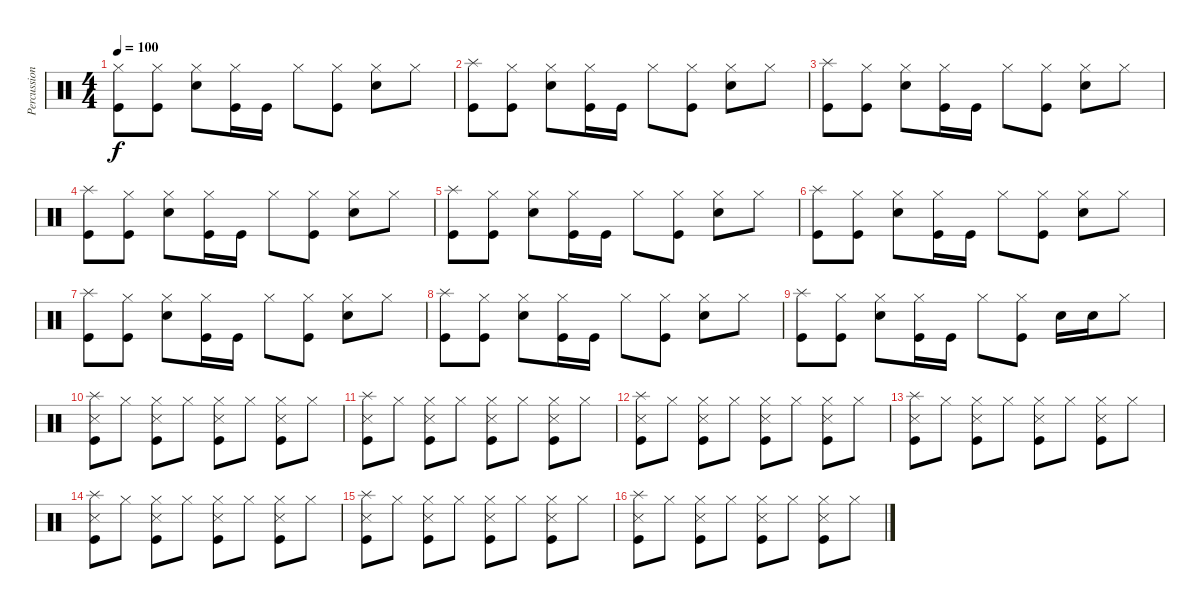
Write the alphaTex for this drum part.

\track ("Percussions" "Percussion") {instrument percussion}
\staff {score}
\articulation defaults
\ts (4 4)
\tempo 100
\clef neutral
\ks c
("Hi-Hat (closed)" "Kick (hit)").8{dy f} ("Hi-Hat (closed)" "Kick (hit)").8 ("Hi-Hat (closed)" "Snare (hit) 2").8 ("Hi-Hat (closed)" "Kick (hit)").16 "Kick (hit)".16 "Hi-Hat (closed)".8 ("Hi-Hat (closed)" "Kick (hit)").8 ("Hi-Hat (closed)" "Snare (hit) 2").8 "Hi-Hat (closed)".8 |
("Splash (hit)" "Kick (hit)").8 ("Hi-Hat (closed)" "Kick (hit)").8 ("Hi-Hat (closed)" "Snare (hit) 2").8 ("Hi-Hat (closed)" "Kick (hit)").16 "Kick (hit)".16 "Hi-Hat (closed)".8 ("Hi-Hat (closed)" "Kick (hit)").8 ("Hi-Hat (closed)" "Snare (hit) 2").8 "Hi-Hat (closed)".8 |
("Splash (hit)" "Kick (hit)").8 ("Hi-Hat (closed)" "Kick (hit)").8 ("Hi-Hat (closed)" "Snare (hit) 2").8 ("Hi-Hat (closed)" "Kick (hit)").16 "Kick (hit)".16 "Hi-Hat (closed)".8 ("Hi-Hat (closed)" "Kick (hit)").8 ("Hi-Hat (closed)" "Snare (hit) 2").8 "Hi-Hat (closed)".8 |
("Splash (hit)" "Kick (hit)").8 ("Hi-Hat (closed)" "Kick (hit)").8 ("Hi-Hat (closed)" "Snare (hit) 2").8 ("Hi-Hat (closed)" "Kick (hit)").16 "Kick (hit)".16 "Hi-Hat (closed)".8 ("Hi-Hat (closed)" "Kick (hit)").8 ("Hi-Hat (closed)" "Snare (hit) 2").8 "Hi-Hat (closed)".8 |
("Splash (hit)" "Kick (hit)").8 ("Hi-Hat (closed)" "Kick (hit)").8 ("Hi-Hat (closed)" "Snare (hit) 2").8 ("Hi-Hat (closed)" "Kick (hit)").16 "Kick (hit)".16 "Hi-Hat (closed)".8 ("Hi-Hat (closed)" "Kick (hit)").8 ("Hi-Hat (closed)" "Snare (hit) 2").8 "Hi-Hat (closed)".8 |
("Splash (hit)" "Kick (hit)").8 ("Hi-Hat (closed)" "Kick (hit)").8 ("Hi-Hat (closed)" "Snare (hit) 2").8 ("Hi-Hat (closed)" "Kick (hit)").16 "Kick (hit)".16 "Hi-Hat (closed)".8 ("Hi-Hat (closed)" "Kick (hit)").8 ("Hi-Hat (closed)" "Snare (hit) 2").8 "Hi-Hat (closed)".8 |
("Splash (hit)" "Kick (hit)").8 ("Hi-Hat (closed)" "Kick (hit)").8 ("Hi-Hat (closed)" "Snare (hit) 2").8 ("Hi-Hat (closed)" "Kick (hit)").16 "Kick (hit)".16 "Hi-Hat (closed)".8 ("Hi-Hat (closed)" "Kick (hit)").8 ("Hi-Hat (closed)" "Snare (hit) 2").8 "Hi-Hat (closed)".8 |
("Splash (hit)" "Kick (hit)").8 ("Hi-Hat (closed)" "Kick (hit)").8 ("Hi-Hat (closed)" "Snare (hit) 2").8 ("Hi-Hat (closed)" "Kick (hit)").16 "Kick (hit)".16 "Hi-Hat (closed)".8 ("Hi-Hat (closed)" "Kick (hit)").8 ("Hi-Hat (closed)" "Snare (hit) 2").8 "Hi-Hat (closed)".8 |
("Splash (hit)" "Kick (hit)").8 ("Hi-Hat (closed)" "Kick (hit)").8 ("Hi-Hat (closed)" "Snare (hit) 2").8 ("Hi-Hat (closed)" "Kick (hit)").16 "Kick (hit)".16 "Hi-Hat (closed)".8 ("Hi-Hat (closed)" "Kick (hit)").8 "Snare (hit) 2".16 "Snare (hit) 2".16 "Hi-Hat (closed)".8 |
("Splash (hit)" "Snare (side stick) 3" "Kick (hit)").8 "Hi-Hat (closed)".8 ("Hi-Hat (closed)" "Snare (side stick) 3" "Kick (hit)").8 "Hi-Hat (closed)".8 ("Hi-Hat (closed)" "Snare (side stick) 3" "Kick (hit)").8 "Hi-Hat (closed)".8 ("Hi-Hat (closed)" "Snare (side stick) 3" "Kick (hit)").8 "Hi-Hat (closed)".8 |
("Splash (hit)" "Snare (side stick) 3" "Kick (hit)").8 "Hi-Hat (closed)".8 ("Hi-Hat (closed)" "Snare (side stick) 3" "Kick (hit)").8 "Hi-Hat (closed)".8 ("Hi-Hat (closed)" "Snare (side stick) 3" "Kick (hit)").8 "Hi-Hat (closed)".8 ("Hi-Hat (closed)" "Snare (side stick) 3" "Kick (hit)").8 "Hi-Hat (closed)".8 |
("Splash (hit)" "Snare (side stick) 3" "Kick (hit)").8 "Hi-Hat (closed)".8 ("Hi-Hat (closed)" "Snare (side stick) 3" "Kick (hit)").8 "Hi-Hat (closed)".8 ("Hi-Hat (closed)" "Snare (side stick) 3" "Kick (hit)").8 "Hi-Hat (closed)".8 ("Hi-Hat (closed)" "Snare (side stick) 3" "Kick (hit)").8 "Hi-Hat (closed)".8 |
("Splash (hit)" "Snare (side stick) 3" "Kick (hit)").8 "Hi-Hat (closed)".8 ("Hi-Hat (closed)" "Snare (side stick) 3" "Kick (hit)").8 "Hi-Hat (closed)".8 ("Hi-Hat (closed)" "Snare (side stick) 3" "Kick (hit)").8 "Hi-Hat (closed)".8 ("Hi-Hat (closed)" "Snare (side stick) 3" "Kick (hit)").8 "Hi-Hat (closed)".8 |
("Splash (hit)" "Snare (side stick) 3" "Kick (hit)").8 "Hi-Hat (closed)".8 ("Hi-Hat (closed)" "Snare (side stick) 3" "Kick (hit)").8 "Hi-Hat (closed)".8 ("Hi-Hat (closed)" "Snare (side stick) 3" "Kick (hit)").8 "Hi-Hat (closed)".8 ("Hi-Hat (closed)" "Snare (side stick) 3" "Kick (hit)").8 "Hi-Hat (closed)".8 |
("Splash (hit)" "Snare (side stick) 3" "Kick (hit)").8 "Hi-Hat (closed)".8 ("Hi-Hat (closed)" "Snare (side stick) 3" "Kick (hit)").8 "Hi-Hat (closed)".8 ("Hi-Hat (closed)" "Snare (side stick) 3" "Kick (hit)").8 "Hi-Hat (closed)".8 ("Hi-Hat (closed)" "Snare (side stick) 3" "Kick (hit)").8 "Hi-Hat (closed)".8 |
("Splash (hit)" "Snare (side stick) 3" "Kick (hit)").8 "Hi-Hat (closed)".8 ("Hi-Hat (closed)" "Snare (side stick) 3" "Kick (hit)").8 "Hi-Hat (closed)".8 ("Hi-Hat (closed)" "Snare (side stick) 3" "Kick (hit)").8 "Hi-Hat (closed)".8 ("Hi-Hat (closed)" "Snare (side stick) 3" "Kick (hit)").8 "Hi-Hat (closed)".8
